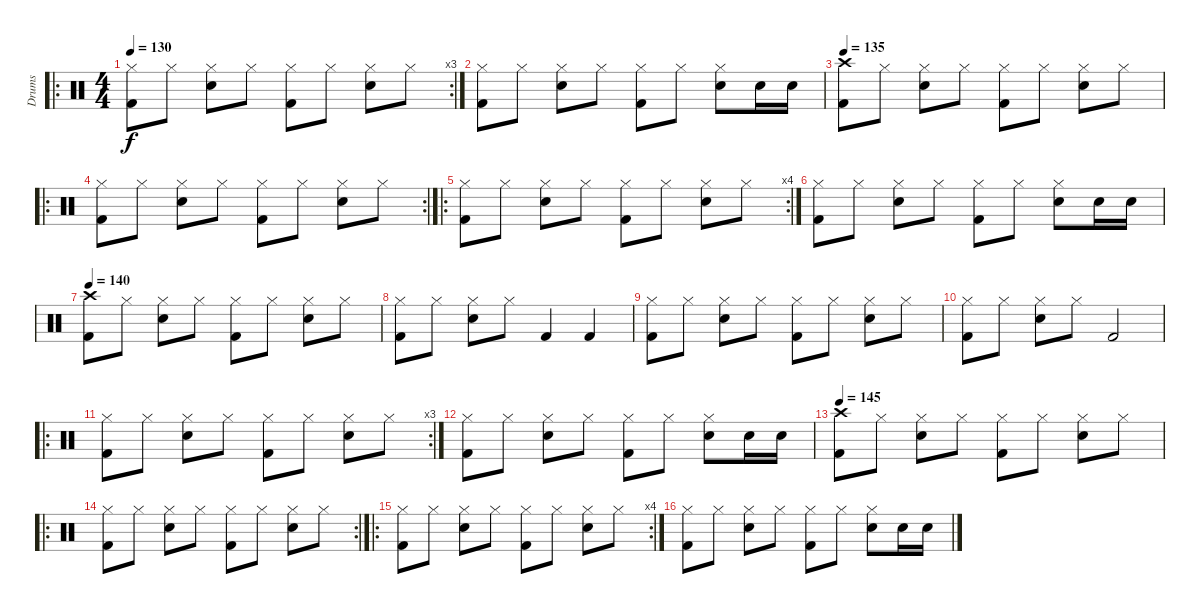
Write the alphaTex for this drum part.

\track ("Drums" "Drums") {instrument percussion}
\staff {score}
\articulation defaults
\ro
\rc 3
\ts (4 4)
\tempo 130
\clef neutral
\ks c
("Hi-Hat (closed)" "Kick (hit) 2").8{dy f} "Hi-Hat (closed)".8 ("Hi-Hat (closed)" "Snare (hit) 2").8 "Hi-Hat (closed)".8 ("Hi-Hat (closed)" "Kick (hit) 2").8 "Hi-Hat (closed)".8 ("Hi-Hat (closed)" "Snare (hit) 2").8 "Hi-Hat (closed)".8 |
("Hi-Hat (closed)" "Kick (hit) 2").8 "Hi-Hat (closed)".8 ("Hi-Hat (closed)" "Snare (hit) 2").8 "Hi-Hat (closed)".8 ("Hi-Hat (closed)" "Kick (hit) 2").8 "Hi-Hat (closed)".8 ("Hi-Hat (closed)" "Snare (hit) 2").8 "Snare (hit) 2".16 "Snare (hit) 2".16 |
\tempo 135
("Crash high (hit)" "Kick (hit) 2").8 "Hi-Hat (closed)".8 ("Hi-Hat (closed)" "Snare (hit) 2").8 "Hi-Hat (closed)".8 ("Hi-Hat (closed)" "Kick (hit) 2").8 "Hi-Hat (closed)".8 ("Hi-Hat (closed)" "Snare (hit) 2").8 "Hi-Hat (closed)".8 |
\ro
\rc 2
("Hi-Hat (closed)" "Kick (hit) 2").8 "Hi-Hat (closed)".8 ("Hi-Hat (closed)" "Snare (hit) 2").8 "Hi-Hat (closed)".8 ("Hi-Hat (closed)" "Kick (hit) 2").8 "Hi-Hat (closed)".8 ("Hi-Hat (closed)" "Snare (hit) 2").8 "Hi-Hat (closed)".8 |
\ro
\rc 4
("Hi-Hat (closed)" "Kick (hit) 2").8 "Hi-Hat (closed)".8 ("Hi-Hat (closed)" "Snare (hit) 2").8 "Hi-Hat (closed)".8 ("Hi-Hat (closed)" "Kick (hit) 2").8 "Hi-Hat (closed)".8 ("Hi-Hat (closed)" "Snare (hit) 2").8 "Hi-Hat (closed)".8 |
("Hi-Hat (closed)" "Kick (hit) 2").8 "Hi-Hat (closed)".8 ("Hi-Hat (closed)" "Snare (hit) 2").8 "Hi-Hat (closed)".8 ("Hi-Hat (closed)" "Kick (hit) 2").8 "Hi-Hat (closed)".8 ("Hi-Hat (closed)" "Snare (hit) 2").8 "Snare (hit) 2".16 "Snare (hit) 2".16 |
\tempo 140
("Crash high (hit)" "Kick (hit) 2").8 "Hi-Hat (closed)".8 ("Hi-Hat (closed)" "Snare (hit) 2").8 "Hi-Hat (closed)".8 ("Hi-Hat (closed)" "Kick (hit) 2").8 "Hi-Hat (closed)".8 ("Hi-Hat (closed)" "Snare (hit) 2").8 "Hi-Hat (closed)".8 |
("Hi-Hat (closed)" "Kick (hit) 2").8 "Hi-Hat (closed)".8 ("Hi-Hat (closed)" "Snare (hit) 2").8 "Hi-Hat (closed)".8 "Kick (hit) 2".4 "Kick (hit) 2".4 |
("Hi-Hat (closed)" "Kick (hit) 2").8 "Hi-Hat (closed)".8 ("Hi-Hat (closed)" "Snare (hit) 2").8 "Hi-Hat (closed)".8 ("Hi-Hat (closed)" "Kick (hit) 2").8 "Hi-Hat (closed)".8 ("Hi-Hat (closed)" "Snare (hit) 2").8 "Hi-Hat (closed)".8 |
("Hi-Hat (closed)" "Kick (hit) 2").8 "Hi-Hat (closed)".8 ("Hi-Hat (closed)" "Snare (hit) 2").8 "Hi-Hat (closed)".8 "Kick (hit) 2".2 |
\ro
\rc 3
("Hi-Hat (closed)" "Kick (hit) 2").8 "Hi-Hat (closed)".8 ("Hi-Hat (closed)" "Snare (hit) 2").8 "Hi-Hat (closed)".8 ("Hi-Hat (closed)" "Kick (hit) 2").8 "Hi-Hat (closed)".8 ("Hi-Hat (closed)" "Snare (hit) 2").8 "Hi-Hat (closed)".8 |
("Hi-Hat (closed)" "Kick (hit) 2").8 "Hi-Hat (closed)".8 ("Hi-Hat (closed)" "Snare (hit) 2").8 "Hi-Hat (closed)".8 ("Hi-Hat (closed)" "Kick (hit) 2").8 "Hi-Hat (closed)".8 ("Hi-Hat (closed)" "Snare (hit) 2").8 "Snare (hit) 2".16 "Snare (hit) 2".16 |
\tempo 145
("Crash high (hit)" "Kick (hit) 2").8 "Hi-Hat (closed)".8 ("Hi-Hat (closed)" "Snare (hit) 2").8 "Hi-Hat (closed)".8 ("Hi-Hat (closed)" "Kick (hit) 2").8 "Hi-Hat (closed)".8 ("Hi-Hat (closed)" "Snare (hit) 2").8 "Hi-Hat (closed)".8 |
\ro
\rc 2
("Hi-Hat (closed)" "Kick (hit) 2").8 "Hi-Hat (closed)".8 ("Hi-Hat (closed)" "Snare (hit) 2").8 "Hi-Hat (closed)".8 ("Hi-Hat (closed)" "Kick (hit) 2").8 "Hi-Hat (closed)".8 ("Hi-Hat (closed)" "Snare (hit) 2").8 "Hi-Hat (closed)".8 |
\ro
\rc 4
("Hi-Hat (closed)" "Kick (hit) 2").8 "Hi-Hat (closed)".8 ("Hi-Hat (closed)" "Snare (hit) 2").8 "Hi-Hat (closed)".8 ("Hi-Hat (closed)" "Kick (hit) 2").8 "Hi-Hat (closed)".8 ("Hi-Hat (closed)" "Snare (hit) 2").8 "Hi-Hat (closed)".8 |
("Hi-Hat (closed)" "Kick (hit) 2").8 "Hi-Hat (closed)".8 ("Hi-Hat (closed)" "Snare (hit) 2").8 "Hi-Hat (closed)".8 ("Hi-Hat (closed)" "Kick (hit) 2").8 "Hi-Hat (closed)".8 ("Hi-Hat (closed)" "Snare (hit) 2").8 "Snare (hit) 2".16 "Snare (hit) 2".16
